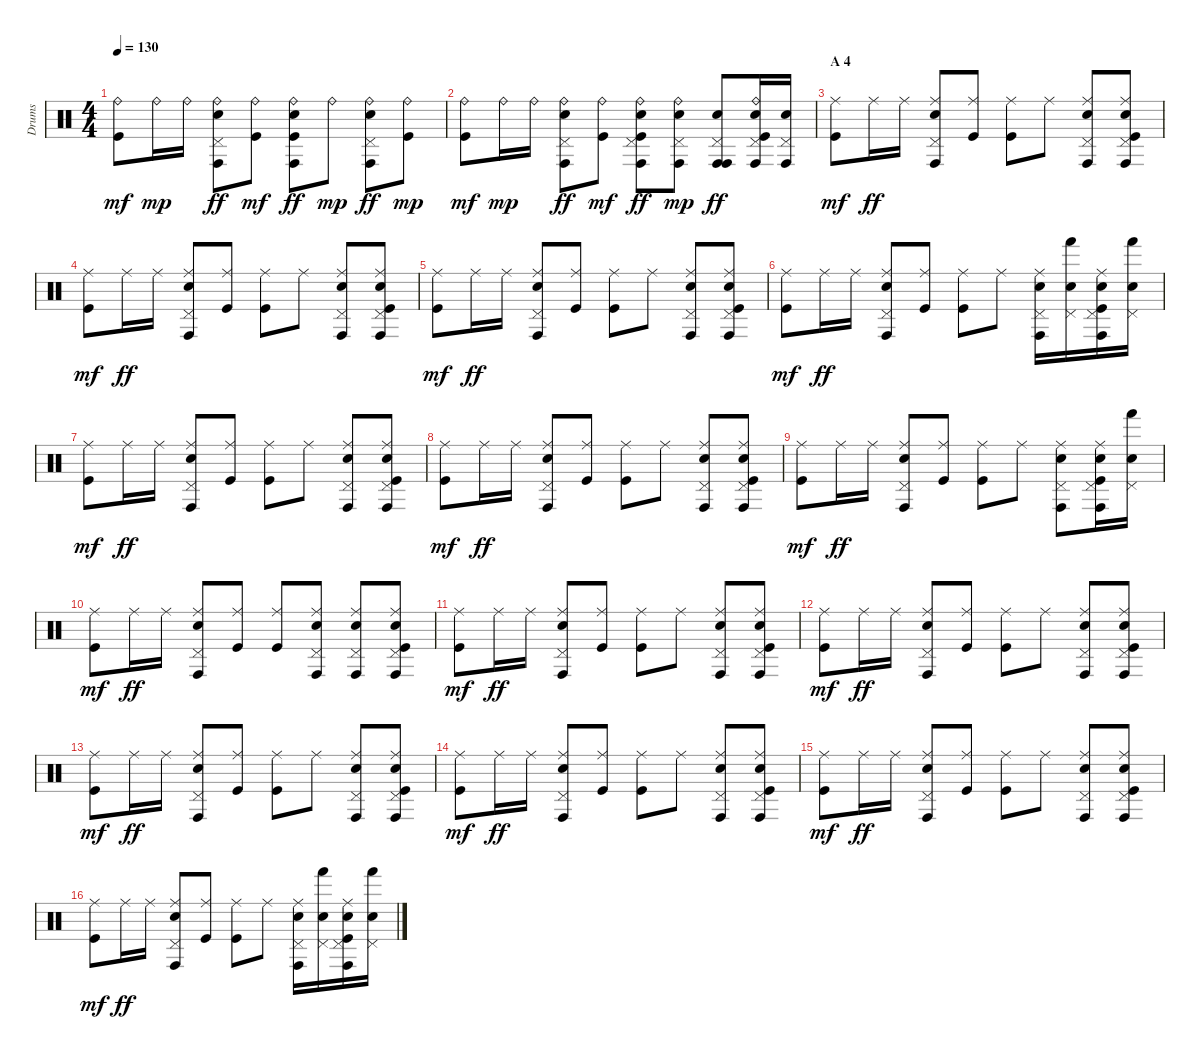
\track ("Drums" "Drums") {instrument percussion}
\staff {score}
\articulation defaults
\ts (4 4)
\tempo 130
\clef neutral
\ks c
("Ride (bell)" "Kick (hit)").8{dy mf} "Ride (bell)".16{dy mp} "Ride (bell)".16 ("Ride (bell)" "Pedal Hi-Hat (hit)" "Conga high (hit)" "Electric Snare (hit)").8{dy ff} ("Ride (bell)" "Kick (hit)").8{dy mf} ("Ride (bell)" "Conga high (hit)" "Electric Snare (hit)" "Kick (hit)").8{dy ff} "Ride (bell)".8{dy mp} ("Ride (bell)" "Pedal Hi-Hat (hit)" "Conga high (hit)" "Electric Snare (hit)").8{dy ff} ("Ride (bell)" "Kick (hit)").8{dy mp} |
("Ride (bell)" "Kick (hit)").8{dy mf} "Ride (bell)".16{dy mp} "Ride (bell)".16 ("Ride (bell)" "Pedal Hi-Hat (hit)" "Conga high (hit)" "Electric Snare (hit)").8{dy ff} ("Ride (bell)" "Kick (hit)").8{dy mf} ("Ride (bell)" "Pedal Hi-Hat (hit)" "Conga high (hit)" "Electric Snare (hit)" "Kick (hit)").8{dy ff} ("Ride (bell)" "Pedal Hi-Hat (hit)" "Conga high (hit)" "Electric Snare (hit)").8{dy mp} ("Conga high (hit)" "Pedal Hi-Hat (hit)" "Conga high (hit)" "Electric Snare (hit)").8{dy ff} ("Ride (bell)" "Pedal Hi-Hat (hit)" "Conga high (hit)" "Electric Snare (hit)" "Kick (hit)").16 ("Pedal Hi-Hat (hit)" "Conga high (hit)" "Electric Snare (hit)").16 |
\section ("" "A 4")
("Ride (middle)" "Kick (hit)").8{dy mf} "Ride (middle)".16{dy ff} "Ride (middle)".16 ("Ride (middle)" "Pedal Hi-Hat (hit)" "Conga high (hit)" "Electric Snare (hit)").8 ("Ride (middle)" "Kick (hit)").8 ("Ride (middle)" "Kick (hit)").8 "Ride (middle)".8 ("Ride (middle)" "Pedal Hi-Hat (hit)" "Conga high (hit)" "Electric Snare (hit)").8 ("Ride (middle)" "Pedal Hi-Hat (hit)" "Conga high (hit)" "Electric Snare (hit)" "Kick (hit)").8 |
("Ride (middle)" "Kick (hit)").8{dy mf} "Ride (middle)".16{dy ff} "Ride (middle)".16 ("Ride (middle)" "Pedal Hi-Hat (hit)" "Conga high (hit)" "Electric Snare (hit)").8 ("Ride (middle)" "Kick (hit)").8 ("Ride (middle)" "Kick (hit)").8 "Ride (middle)".8 ("Ride (middle)" "Pedal Hi-Hat (hit)" "Conga high (hit)" "Electric Snare (hit)").8 ("Ride (middle)" "Pedal Hi-Hat (hit)" "Conga high (hit)" "Electric Snare (hit)" "Kick (hit)").8 |
("Ride (middle)" "Kick (hit)").8{dy mf} "Ride (middle)".16{dy ff} "Ride (middle)".16 ("Ride (middle)" "Pedal Hi-Hat (hit)" "Conga high (hit)" "Electric Snare (hit)").8 ("Ride (middle)" "Kick (hit)").8 ("Ride (middle)" "Kick (hit)").8 "Ride (middle)".8 ("Ride (middle)" "Pedal Hi-Hat (hit)" "Conga high (hit)" "Electric Snare (hit)").8 ("Ride (middle)" "Pedal Hi-Hat (hit)" "Conga high (hit)" "Electric Snare (hit)" "Kick (hit)").8 |
("Ride (middle)" "Kick (hit)").8{dy mf} "Ride (middle)".16{dy ff} "Ride (middle)".16 ("Ride (middle)" "Pedal Hi-Hat (hit)" "Conga high (hit)" "Electric Snare (hit)").8 ("Ride (middle)" "Kick (hit)").8 ("Ride (middle)" "Kick (hit)").8 "Ride (middle)".8 ("Ride (middle)" "Pedal Hi-Hat (hit)" "Conga high (hit)" "Electric Snare (hit)").16 ("Pedal Hi-Hat (hit)" "Hand (hit)" "Electric Snare (hit)").16 ("Ride (middle)" "Pedal Hi-Hat (hit)" "Conga high (hit)" "Electric Snare (hit)" "Kick (hit)").16 ("Pedal Hi-Hat (hit)" "Hand (hit)" "Electric Snare (hit)").16 |
("Ride (middle)" "Kick (hit)").8{dy mf} "Ride (middle)".16{dy ff} "Ride (middle)".16 ("Ride (middle)" "Pedal Hi-Hat (hit)" "Conga high (hit)" "Electric Snare (hit)").8 ("Ride (middle)" "Kick (hit)").8 ("Ride (middle)" "Kick (hit)").8 "Ride (middle)".8 ("Ride (middle)" "Pedal Hi-Hat (hit)" "Conga high (hit)" "Electric Snare (hit)").8 ("Ride (middle)" "Pedal Hi-Hat (hit)" "Conga high (hit)" "Electric Snare (hit)" "Kick (hit)").8 |
("Ride (middle)" "Kick (hit)").8{dy mf} "Ride (middle)".16{dy ff} "Ride (middle)".16 ("Ride (middle)" "Pedal Hi-Hat (hit)" "Conga high (hit)" "Electric Snare (hit)").8 ("Ride (middle)" "Kick (hit)").8 ("Ride (middle)" "Kick (hit)").8 "Ride (middle)".8 ("Ride (middle)" "Pedal Hi-Hat (hit)" "Conga high (hit)" "Electric Snare (hit)").8 ("Ride (middle)" "Pedal Hi-Hat (hit)" "Conga high (hit)" "Electric Snare (hit)" "Kick (hit)").8 |
("Ride (middle)" "Kick (hit)").8{dy mf} "Ride (middle)".16{dy ff} "Ride (middle)".16 ("Ride (middle)" "Pedal Hi-Hat (hit)" "Conga high (hit)" "Electric Snare (hit)").8 ("Ride (middle)" "Kick (hit)").8 ("Ride (middle)" "Kick (hit)").8 "Ride (middle)".8 ("Ride (middle)" "Pedal Hi-Hat (hit)" "Conga high (hit)" "Electric Snare (hit)").8 ("Ride (middle)" "Pedal Hi-Hat (hit)" "Conga high (hit)" "Electric Snare (hit)" "Kick (hit)").16 ("Pedal Hi-Hat (hit)" "Hand (hit)" "Electric Snare (hit)").16 |
("Ride (middle)" "Kick (hit)").8{dy mf} "Ride (middle)".16{dy ff} "Ride (middle)".16 ("Ride (middle)" "Pedal Hi-Hat (hit)" "Conga high (hit)" "Electric Snare (hit)").8 ("Ride (middle)" "Kick (hit)").8 ("Ride (middle)" "Kick (hit)").8 ("Ride (middle)" "Pedal Hi-Hat (hit)" "Conga high (hit)" "Electric Snare (hit)").8 ("Ride (middle)" "Pedal Hi-Hat (hit)" "Conga high (hit)" "Electric Snare (hit)").8 ("Ride (middle)" "Pedal Hi-Hat (hit)" "Conga high (hit)" "Electric Snare (hit)" "Kick (hit)").8 |
("Ride (middle)" "Kick (hit)").8{dy mf} "Ride (middle)".16{dy ff} "Ride (middle)".16 ("Ride (middle)" "Pedal Hi-Hat (hit)" "Conga high (hit)" "Electric Snare (hit)").8 ("Ride (middle)" "Kick (hit)").8 ("Ride (middle)" "Kick (hit)").8 "Ride (middle)".8 ("Ride (middle)" "Pedal Hi-Hat (hit)" "Conga high (hit)" "Electric Snare (hit)").8 ("Ride (middle)" "Pedal Hi-Hat (hit)" "Conga high (hit)" "Electric Snare (hit)" "Kick (hit)").8 |
("Ride (middle)" "Kick (hit)").8{dy mf} "Ride (middle)".16{dy ff} "Ride (middle)".16 ("Ride (middle)" "Pedal Hi-Hat (hit)" "Conga high (hit)" "Electric Snare (hit)").8 ("Ride (middle)" "Kick (hit)").8 ("Ride (middle)" "Kick (hit)").8 "Ride (middle)".8 ("Ride (middle)" "Pedal Hi-Hat (hit)" "Conga high (hit)" "Electric Snare (hit)").8 ("Ride (middle)" "Pedal Hi-Hat (hit)" "Conga high (hit)" "Electric Snare (hit)" "Kick (hit)").8 |
("Ride (middle)" "Kick (hit)").8{dy mf} "Ride (middle)".16{dy ff} "Ride (middle)".16 ("Ride (middle)" "Pedal Hi-Hat (hit)" "Conga high (hit)" "Electric Snare (hit)").8 ("Ride (middle)" "Kick (hit)").8 ("Ride (middle)" "Kick (hit)").8 "Ride (middle)".8 ("Ride (middle)" "Pedal Hi-Hat (hit)" "Conga high (hit)" "Electric Snare (hit)").8 ("Ride (middle)" "Pedal Hi-Hat (hit)" "Conga high (hit)" "Electric Snare (hit)" "Kick (hit)").8 |
("Ride (middle)" "Kick (hit)").8{dy mf} "Ride (middle)".16{dy ff} "Ride (middle)".16 ("Ride (middle)" "Pedal Hi-Hat (hit)" "Conga high (hit)" "Electric Snare (hit)").8 ("Ride (middle)" "Kick (hit)").8 ("Ride (middle)" "Kick (hit)").8 "Ride (middle)".8 ("Ride (middle)" "Pedal Hi-Hat (hit)" "Conga high (hit)" "Electric Snare (hit)").8 ("Ride (middle)" "Pedal Hi-Hat (hit)" "Conga high (hit)" "Electric Snare (hit)" "Kick (hit)").8 |
("Ride (middle)" "Kick (hit)").8{dy mf} "Ride (middle)".16{dy ff} "Ride (middle)".16 ("Ride (middle)" "Pedal Hi-Hat (hit)" "Conga high (hit)" "Electric Snare (hit)").8 ("Ride (middle)" "Kick (hit)").8 ("Ride (middle)" "Kick (hit)").8 "Ride (middle)".8 ("Ride (middle)" "Pedal Hi-Hat (hit)" "Conga high (hit)" "Electric Snare (hit)").8 ("Ride (middle)" "Pedal Hi-Hat (hit)" "Conga high (hit)" "Electric Snare (hit)" "Kick (hit)").8 |
("Ride (middle)" "Kick (hit)").8{dy mf} "Ride (middle)".16{dy ff} "Ride (middle)".16 ("Ride (middle)" "Pedal Hi-Hat (hit)" "Conga high (hit)" "Electric Snare (hit)").8 ("Ride (middle)" "Kick (hit)").8 ("Ride (middle)" "Kick (hit)").8 "Ride (middle)".8 ("Ride (middle)" "Pedal Hi-Hat (hit)" "Conga high (hit)" "Electric Snare (hit)").16 ("Pedal Hi-Hat (hit)" "Hand (hit)" "Electric Snare (hit)").16 ("Ride (middle)" "Pedal Hi-Hat (hit)" "Conga high (hit)" "Electric Snare (hit)" "Kick (hit)").16 ("Pedal Hi-Hat (hit)" "Hand (hit)" "Electric Snare (hit)").16
